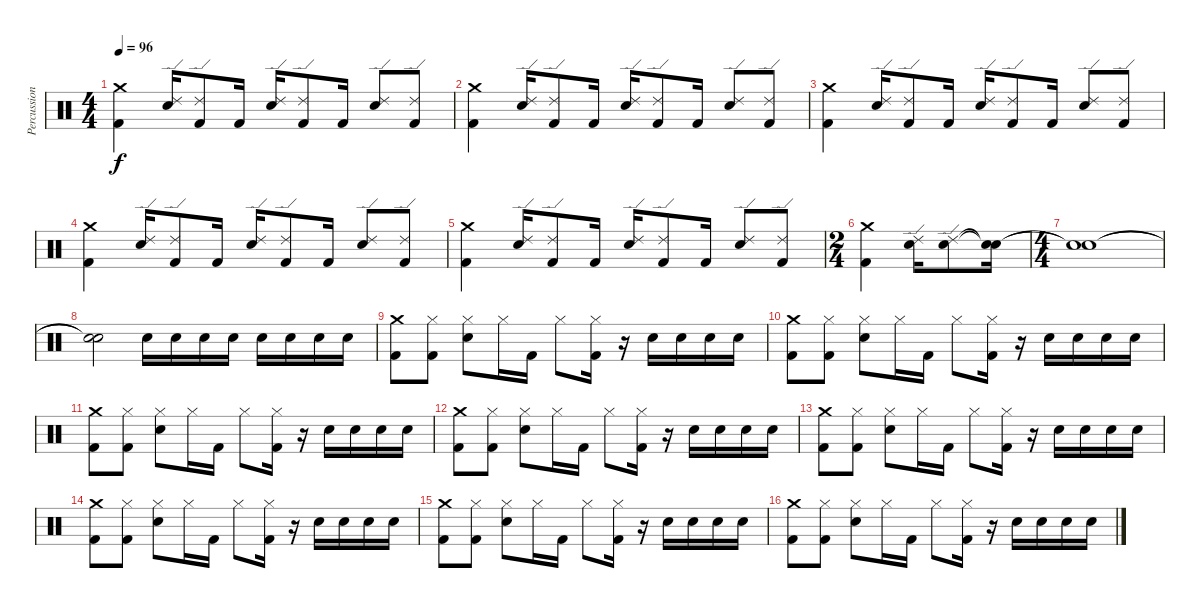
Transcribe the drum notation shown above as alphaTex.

\track ("Percussion" "Percussion") {instrument percussion}
\staff {score}
\articulation defaults
\ts (4 4)
\tempo 96
\clef neutral
\ks c
("Crash medium (hit)" "Kick (hit) 2").4{dy f} ("Ride (edge) 2" "Snare (hit) 2").16 ("Ride (edge) 2" "Kick (hit) 2").8 "Kick (hit) 2".16 ("Ride (edge) 2" "Snare (hit) 2").16 ("Ride (edge) 2" "Kick (hit) 2").8 "Kick (hit) 2".16 ("Ride (edge) 2" "Snare (hit) 2").8 ("Ride (edge) 2" "Kick (hit) 2").8 |
("Crash medium (hit)" "Kick (hit) 2").4 ("Ride (edge) 2" "Snare (hit) 2").16 ("Ride (edge) 2" "Kick (hit) 2").8 "Kick (hit) 2".16 ("Ride (edge) 2" "Snare (hit) 2").16 ("Ride (edge) 2" "Kick (hit) 2").8 "Kick (hit) 2".16 ("Ride (edge) 2" "Snare (hit) 2").8 ("Ride (edge) 2" "Kick (hit) 2").8 |
("Crash medium (hit)" "Kick (hit) 2").4 ("Ride (edge) 2" "Snare (hit) 2").16 ("Ride (edge) 2" "Kick (hit) 2").8 "Kick (hit) 2".16 ("Ride (edge) 2" "Snare (hit) 2").16 ("Ride (edge) 2" "Kick (hit) 2").8 "Kick (hit) 2".16 ("Ride (edge) 2" "Snare (hit) 2").8 ("Ride (edge) 2" "Kick (hit) 2").8 |
("Crash medium (hit)" "Kick (hit) 2").4 ("Ride (edge) 2" "Snare (hit) 2").16 ("Ride (edge) 2" "Kick (hit) 2").8 "Kick (hit) 2".16 ("Ride (edge) 2" "Snare (hit) 2").16 ("Ride (edge) 2" "Kick (hit) 2").8 "Kick (hit) 2".16 ("Ride (edge) 2" "Snare (hit) 2").8 ("Ride (edge) 2" "Kick (hit) 2").8 |
("Crash medium (hit)" "Kick (hit) 2").4 ("Ride (edge) 2" "Snare (hit) 2").16 ("Ride (edge) 2" "Kick (hit) 2").8 "Kick (hit) 2".16 ("Ride (edge) 2" "Snare (hit) 2").16 ("Ride (edge) 2" "Kick (hit) 2").8 "Kick (hit) 2".16 ("Ride (edge) 2" "Snare (hit) 2").8 ("Ride (edge) 2" "Kick (hit) 2").8 |
\ts (2 4)
("Crash medium (hit)" "Kick (hit) 2").4 ("Ride (edge) 2" "Snare (hit) 2").16 ("Ride (edge) 2" "Snare (hit) 2").8 ("Snare (hit)"{t} "Snare (hit)"{t}).16 |
\ts (4 4)
("Snare (hit)"{t} "Snare (hit)"{t}).1 |
("Snare (hit)"{t} "Snare (hit)"{t}).2 "Snare (hit) 2".16 "Snare (hit) 2".16 "Snare (hit) 2".16 "Snare (hit) 2".16 "Snare (hit) 2".16 "Snare (hit) 2".16 "Snare (hit) 2".16 "Snare (hit) 2".16 |
("Crash medium (hit)" "Kick (hit) 2").8 ("Hi-Hat (closed)" "Kick (hit) 2").8 ("Hi-Hat (closed)" "Snare (hit) 2").8 "Hi-Hat (closed)".16 "Kick (hit) 2".16 "Hi-Hat (closed)".8 ("Hi-Hat (closed)" "Kick (hit) 2").16 r.16 "Snare (hit) 2".16 "Snare (hit) 2".16 "Snare (hit) 2".16 "Snare (hit) 2".16 |
("Crash medium (hit)" "Kick (hit) 2").8 ("Hi-Hat (closed)" "Kick (hit) 2").8 ("Hi-Hat (closed)" "Snare (hit) 2").8 "Hi-Hat (closed)".16 "Kick (hit) 2".16 "Hi-Hat (closed)".8 ("Hi-Hat (closed)" "Kick (hit) 2").16 r.16 "Snare (hit) 2".16 "Snare (hit) 2".16 "Snare (hit) 2".16 "Snare (hit) 2".16 |
("Crash medium (hit)" "Kick (hit) 2").8 ("Hi-Hat (closed)" "Kick (hit) 2").8 ("Hi-Hat (closed)" "Snare (hit) 2").8 "Hi-Hat (closed)".16 "Kick (hit) 2".16 "Hi-Hat (closed)".8 ("Hi-Hat (closed)" "Kick (hit) 2").16 r.16 "Snare (hit) 2".16 "Snare (hit) 2".16 "Snare (hit) 2".16 "Snare (hit) 2".16 |
("Crash medium (hit)" "Kick (hit) 2").8 ("Hi-Hat (closed)" "Kick (hit) 2").8 ("Hi-Hat (closed)" "Snare (hit) 2").8 "Hi-Hat (closed)".16 "Kick (hit) 2".16 "Hi-Hat (closed)".8 ("Hi-Hat (closed)" "Kick (hit) 2").16 r.16 "Snare (hit) 2".16 "Snare (hit) 2".16 "Snare (hit) 2".16 "Snare (hit) 2".16 |
("Crash medium (hit)" "Kick (hit) 2").8 ("Hi-Hat (closed)" "Kick (hit) 2").8 ("Hi-Hat (closed)" "Snare (hit) 2").8 "Hi-Hat (closed)".16 "Kick (hit) 2".16 "Hi-Hat (closed)".8 ("Hi-Hat (closed)" "Kick (hit) 2").16 r.16 "Snare (hit) 2".16 "Snare (hit) 2".16 "Snare (hit) 2".16 "Snare (hit) 2".16 |
("Crash medium (hit)" "Kick (hit) 2").8 ("Hi-Hat (closed)" "Kick (hit) 2").8 ("Hi-Hat (closed)" "Snare (hit) 2").8 "Hi-Hat (closed)".16 "Kick (hit) 2".16 "Hi-Hat (closed)".8 ("Hi-Hat (closed)" "Kick (hit) 2").16 r.16 "Snare (hit) 2".16 "Snare (hit) 2".16 "Snare (hit) 2".16 "Snare (hit) 2".16 |
("Crash medium (hit)" "Kick (hit) 2").8 ("Hi-Hat (closed)" "Kick (hit) 2").8 ("Hi-Hat (closed)" "Snare (hit) 2").8 "Hi-Hat (closed)".16 "Kick (hit) 2".16 "Hi-Hat (closed)".8 ("Hi-Hat (closed)" "Kick (hit) 2").16 r.16 "Snare (hit) 2".16 "Snare (hit) 2".16 "Snare (hit) 2".16 "Snare (hit) 2".16 |
("Crash medium (hit)" "Kick (hit) 2").8 ("Hi-Hat (closed)" "Kick (hit) 2").8 ("Hi-Hat (closed)" "Snare (hit) 2").8 "Hi-Hat (closed)".16 "Kick (hit) 2".16 "Hi-Hat (closed)".8 ("Hi-Hat (closed)" "Kick (hit) 2").16 r.16 "Snare (hit) 2".16 "Snare (hit) 2".16 "Snare (hit) 2".16 "Snare (hit) 2".16
